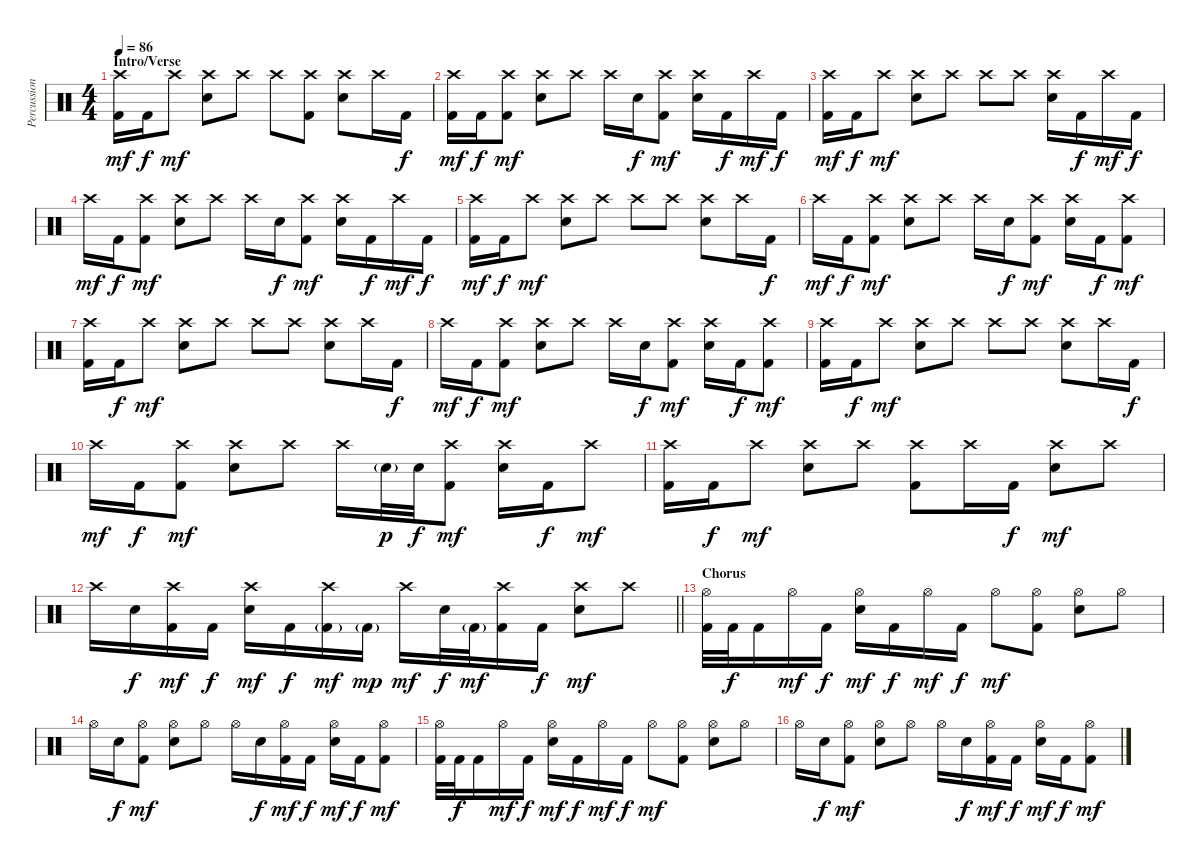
\track ("Percussion" "Percussion") {instrument percussion}
\staff {score}
\articulation defaults
\ts (4 4)
\section ("" "Intro/Verse")
\tempo 86
\clef neutral
\ks c
("Crash high (hit)" "Kick (hit) 2").16{dy mf} "Kick (hit) 2".16{dy f} "Crash high (hit)".8{dy mf} ("Crash high (hit)" "Electric Snare (hit)").8 "Crash high (hit)".8 "Crash high (hit)".8 ("Crash high (hit)" "Kick (hit) 2").8 ("Crash high (hit)" "Electric Snare (hit)").8 "Crash high (hit)".16 "Kick (hit) 2".16{dy f} |
("Crash high (hit)" "Kick (hit) 2").16{dy mf} "Kick (hit) 2".16{dy f} ("Crash high (hit)" "Kick (hit) 2").8{dy mf} ("Crash high (hit)" "Electric Snare (hit)").8 "Crash high (hit)".8 "Crash high (hit)".16 "Electric Snare (hit)".16{dy f} ("Crash high (hit)" "Kick (hit) 2").8{dy mf} ("Crash high (hit)" "Electric Snare (hit)").16 "Kick (hit) 2".16{dy f} "Crash high (hit)".16{dy mf} "Kick (hit) 2".16{dy f} |
("Crash high (hit)" "Kick (hit) 2").16{dy mf} "Kick (hit) 2".16{dy f} "Crash high (hit)".8{dy mf} ("Crash high (hit)" "Electric Snare (hit)").8 "Crash high (hit)".8 "Crash high (hit)".8 "Crash high (hit)".8 ("Crash high (hit)" "Electric Snare (hit)").16 "Kick (hit) 2".16{dy f} "Crash high (hit)".16{dy mf} "Kick (hit) 2".16{dy f} |
"Crash high (hit)".16{dy mf} "Kick (hit) 2".16{dy f} ("Crash high (hit)" "Kick (hit) 2").8{dy mf} ("Crash high (hit)" "Electric Snare (hit)").8 "Crash high (hit)".8 "Crash high (hit)".16 "Electric Snare (hit)".16{dy f} ("Crash high (hit)" "Kick (hit) 2").8{dy mf} ("Crash high (hit)" "Electric Snare (hit)").16 "Kick (hit) 2".16{dy f} "Crash high (hit)".16{dy mf} "Kick (hit) 2".16{dy f} |
("Crash high (hit)" "Kick (hit) 2").16{dy mf} "Kick (hit) 2".16{dy f} "Crash high (hit)".8{dy mf} ("Crash high (hit)" "Electric Snare (hit)").8 "Crash high (hit)".8 "Crash high (hit)".8 "Crash high (hit)".8 ("Crash high (hit)" "Electric Snare (hit)").8 "Crash high (hit)".16 "Kick (hit) 2".16{dy f} |
"Crash high (hit)".16{dy mf} "Kick (hit) 2".16{dy f} ("Crash high (hit)" "Kick (hit) 2").8{dy mf} ("Crash high (hit)" "Electric Snare (hit)").8 "Crash high (hit)".8 "Crash high (hit)".16 "Electric Snare (hit)".16{dy f} ("Crash high (hit)" "Kick (hit) 2").8{dy mf} ("Crash high (hit)" "Electric Snare (hit)").16 "Kick (hit) 2".16{dy f} ("Crash high (hit)" "Kick (hit) 2").8{dy mf} |
("Crash high (hit)" "Kick (hit) 2").16 "Kick (hit) 2".16{dy f} "Crash high (hit)".8{dy mf} ("Crash high (hit)" "Electric Snare (hit)").8 "Crash high (hit)".8 "Crash high (hit)".8 "Crash high (hit)".8 ("Crash high (hit)" "Electric Snare (hit)").8 "Crash high (hit)".16 "Kick (hit) 2".16{dy f} |
"Crash high (hit)".16{dy mf} "Kick (hit) 2".16{dy f} ("Crash high (hit)" "Kick (hit) 2").8{dy mf} ("Crash high (hit)" "Electric Snare (hit)").8 "Crash high (hit)".8 "Crash high (hit)".16 "Electric Snare (hit)".16{dy f} ("Crash high (hit)" "Kick (hit) 2").8{dy mf} ("Crash high (hit)" "Electric Snare (hit)").16 "Kick (hit) 2".16{dy f} ("Crash high (hit)" "Kick (hit) 2").8{dy mf} |
("Crash high (hit)" "Kick (hit) 2").16 "Kick (hit) 2".16{dy f} "Crash high (hit)".8{dy mf} ("Crash high (hit)" "Electric Snare (hit)").8 "Crash high (hit)".8 "Crash high (hit)".8 "Crash high (hit)".8 ("Crash high (hit)" "Electric Snare (hit)").8 "Crash high (hit)".16 "Kick (hit) 2".16{dy f} |
"Crash high (hit)".16{dy mf} "Kick (hit) 2".16{dy f} ("Crash high (hit)" "Kick (hit) 2").8{dy mf} ("Crash high (hit)" "Electric Snare (hit)").8 "Crash high (hit)".8 "Crash high (hit)".16 "Electric Snare (hit)"{g}.32{dy p} "Electric Snare (hit)".32{dy f} ("Crash high (hit)" "Kick (hit) 2").8{dy mf} ("Crash high (hit)" "Electric Snare (hit)").16 "Kick (hit) 2".16{dy f} "Crash high (hit)".8{dy mf} |
("Crash high (hit)" "Kick (hit) 2").16 "Kick (hit) 2".16{dy f} "Crash high (hit)".8{dy mf} ("Crash high (hit)" "Electric Snare (hit)").8 "Crash high (hit)".8 ("Crash high (hit)" "Kick (hit) 2").8 "Crash high (hit)".16 "Kick (hit) 2".16{dy f} ("Crash high (hit)" "Electric Snare (hit)").8{dy mf} "Crash high (hit)".8 |
\barLineRight lightlight "Crash high (hit)".16 "Electric Snare (hit)".16{dy f}
("Crash high (hit)" "Kick (hit) 2").16{dy mf} "Kick (hit) 2".16{dy f} ("Crash high (hit)" "Electric Snare (hit)").16{dy mf} "Kick (hit) 2".16{dy f} ("Crash high (hit)" "Kick (hit) 2"{g}).16{dy mf} "Kick (hit) 2"{g}.16{dy mp} "Crash high (hit)".16{dy mf} "Electric Snare (hit)".32{dy f} "Kick (hit) 2"{g}.32{dy mf} ("Crash high (hit)" "Kick (hit) 2").16 "Kick (hit) 2".16{dy f} ("Crash high (hit)" "Electric Snare (hit)").8{dy mf} "Crash high (hit)".8 |
\section ("" "Chorus ")
("Hi-Hat (open)" "Kick (hit) 2").32 "Kick (hit) 2".32{dy f} "Kick (hit) 2".16 "Hi-Hat (open)".16{dy mf} "Kick (hit) 2".16{dy f} ("Hi-Hat (open)" "Electric Snare (hit)").16{dy mf} "Kick (hit) 2".16{dy f} "Hi-Hat (open)".16{dy mf} "Kick (hit) 2".16{dy f} "Hi-Hat (open)".8{dy mf} ("Hi-Hat (open)" "Kick (hit) 2").8 ("Hi-Hat (open)" "Electric Snare (hit)").8 "Hi-Hat (open)".8 |
"Hi-Hat (open)".16 "Electric Snare (hit)".16{dy f} ("Hi-Hat (open)" "Kick (hit) 2").8{dy mf} ("Hi-Hat (open)" "Electric Snare (hit)").8 "Hi-Hat (open)".8 "Hi-Hat (open)".16 "Electric Snare (hit)".16{dy f} ("Hi-Hat (open)" "Kick (hit) 2").16{dy mf} "Kick (hit) 2".16{dy f} ("Hi-Hat (open)" "Electric Snare (hit)").16{dy mf} "Kick (hit) 2".16{dy f} ("Hi-Hat (open)" "Kick (hit) 2").8{dy mf} |
("Hi-Hat (open)" "Kick (hit) 2").32 "Kick (hit) 2".32{dy f} "Kick (hit) 2".16 "Hi-Hat (open)".16{dy mf} "Kick (hit) 2".16{dy f} ("Hi-Hat (open)" "Electric Snare (hit)").16{dy mf} "Kick (hit) 2".16{dy f} "Hi-Hat (open)".16{dy mf} "Kick (hit) 2".16{dy f} "Hi-Hat (open)".8{dy mf} ("Hi-Hat (open)" "Kick (hit) 2").8 ("Hi-Hat (open)" "Electric Snare (hit)").8 "Hi-Hat (open)".8 |
"Hi-Hat (open)".16 "Electric Snare (hit)".16{dy f} ("Hi-Hat (open)" "Kick (hit) 2").8{dy mf} ("Hi-Hat (open)" "Electric Snare (hit)").8 "Hi-Hat (open)".8 "Hi-Hat (open)".16 "Electric Snare (hit)".16{dy f} ("Hi-Hat (open)" "Kick (hit) 2").16{dy mf} "Kick (hit) 2".16{dy f} ("Hi-Hat (open)" "Electric Snare (hit)").16{dy mf} "Kick (hit) 2".16{dy f} ("Hi-Hat (open)" "Kick (hit) 2").8{dy mf}
